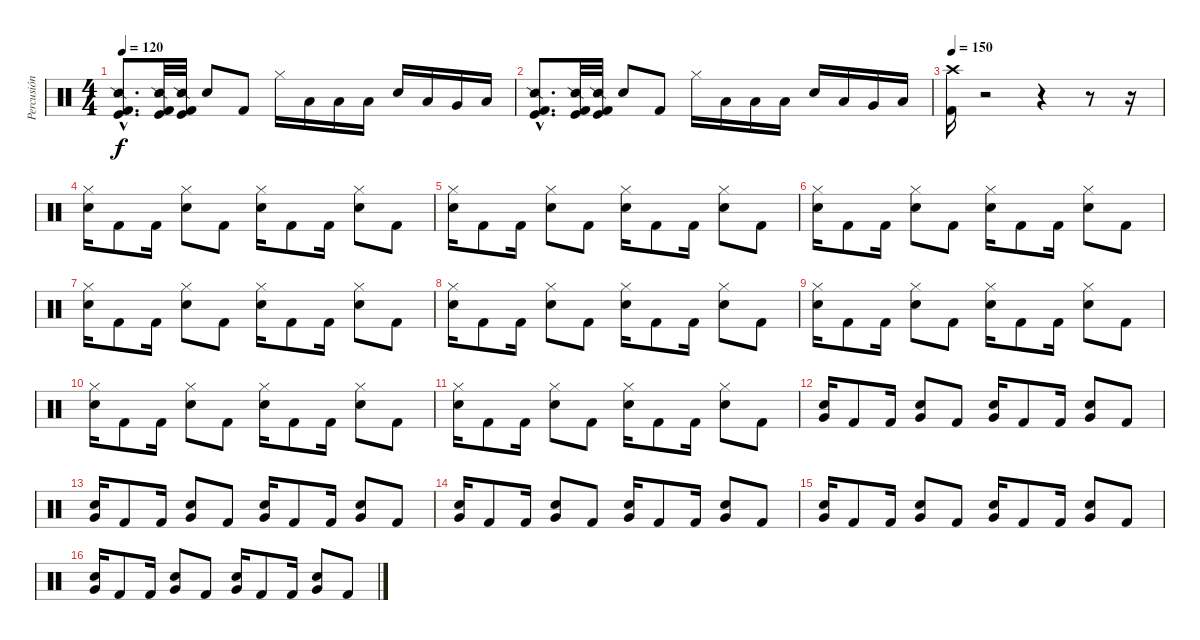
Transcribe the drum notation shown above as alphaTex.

\track ("Percusión" "Percusión") {instrument percussion}
\staff {score}
\articulation defaults
\ts (4 4)
\tempo 120
\clef neutral
\ks c
("Snare (side stick) 2"{hac} "Kick (hit)"{hac} "Kick (hit) 2"{hac}).8{d dy f} ("Snare (side stick) 2" "Kick (hit)" "Kick (hit) 2").32 ("Snare (side stick) 2" "Kick (hit)" "Kick (hit) 2").32 "Snare (hit) 2".8 "Kick (hit) 2".8 "Hi-Hat (closed)".16 "Low Tom (hit)".16 "Low Tom (hit)".16 "Low Tom (hit)".16 "Snare (hit) 2".16 "Low Tom (hit)".16 "Very Low Tom (hit)".16 "Low Floor Tom (hit)".16 |
("Snare (side stick) 2"{hac} "Kick (hit)"{hac} "Kick (hit) 2"{hac}).8{d} ("Snare (side stick) 2" "Kick (hit)" "Kick (hit) 2").32 ("Snare (side stick) 2" "Kick (hit)" "Kick (hit) 2").32 "Snare (hit) 2".8 "Kick (hit) 2".8 "Hi-Hat (closed)".16 "Low Tom (hit)".16 "Low Tom (hit)".16 "Low Tom (hit)".16 "Snare (hit) 2".16 "Low Tom (hit)".16 "Very Low Tom (hit)".16 "Low Floor Tom (hit)".16 |
\tempo 150
("Crash high (hit)" "Kick (hit) 2").16 r.2 r.4 r.8 r.16 |
("Hi-Hat (closed)" "Snare (hit) 2").16 "Kick (hit) 2".8 "Kick (hit) 2".16 ("Hi-Hat (closed)" "Snare (hit) 2").8 "Kick (hit) 2".8 ("Hi-Hat (closed)" "Snare (hit) 2").16 "Kick (hit) 2".8 "Kick (hit) 2".16 ("Hi-Hat (closed)" "Snare (hit) 2").8 "Kick (hit) 2".8 |
("Hi-Hat (closed)" "Snare (hit) 2").16 "Kick (hit) 2".8 "Kick (hit) 2".16 ("Hi-Hat (closed)" "Snare (hit) 2").8 "Kick (hit) 2".8 ("Hi-Hat (closed)" "Snare (hit) 2").16 "Kick (hit) 2".8 "Kick (hit) 2".16 ("Hi-Hat (closed)" "Snare (hit) 2").8 "Kick (hit) 2".8 |
("Hi-Hat (closed)" "Snare (hit) 2").16 "Kick (hit) 2".8 "Kick (hit) 2".16 ("Hi-Hat (closed)" "Snare (hit) 2").8 "Kick (hit) 2".8 ("Hi-Hat (closed)" "Snare (hit) 2").16 "Kick (hit) 2".8 "Kick (hit) 2".16 ("Hi-Hat (closed)" "Snare (hit) 2").8 "Kick (hit) 2".8 |
("Hi-Hat (closed)" "Snare (hit) 2").16 "Kick (hit) 2".8 "Kick (hit) 2".16 ("Hi-Hat (closed)" "Snare (hit) 2").8 "Kick (hit) 2".8 ("Hi-Hat (closed)" "Snare (hit) 2").16 "Kick (hit) 2".8 "Kick (hit) 2".16 ("Hi-Hat (closed)" "Snare (hit) 2").8 "Kick (hit) 2".8 |
("Hi-Hat (closed)" "Snare (hit) 2").16 "Kick (hit) 2".8 "Kick (hit) 2".16 ("Hi-Hat (closed)" "Snare (hit) 2").8 "Kick (hit) 2".8 ("Hi-Hat (closed)" "Snare (hit) 2").16 "Kick (hit) 2".8 "Kick (hit) 2".16 ("Hi-Hat (closed)" "Snare (hit) 2").8 "Kick (hit) 2".8 |
("Hi-Hat (closed)" "Snare (hit) 2").16 "Kick (hit) 2".8 "Kick (hit) 2".16 ("Hi-Hat (closed)" "Snare (hit) 2").8 "Kick (hit) 2".8 ("Hi-Hat (closed)" "Snare (hit) 2").16 "Kick (hit) 2".8 "Kick (hit) 2".16 ("Hi-Hat (closed)" "Snare (hit) 2").8 "Kick (hit) 2".8 |
("Hi-Hat (closed)" "Snare (hit) 2").16 "Kick (hit) 2".8 "Kick (hit) 2".16 ("Hi-Hat (closed)" "Snare (hit) 2").8 "Kick (hit) 2".8 ("Hi-Hat (closed)" "Snare (hit) 2").16 "Kick (hit) 2".8 "Kick (hit) 2".16 ("Hi-Hat (closed)" "Snare (hit) 2").8 "Kick (hit) 2".8 |
("Hi-Hat (closed)" "Snare (hit) 2").16 "Kick (hit) 2".8 "Kick (hit) 2".16 ("Hi-Hat (closed)" "Snare (hit) 2").8 "Kick (hit) 2".8 ("Hi-Hat (closed)" "Snare (hit) 2").16 "Kick (hit) 2".8 "Kick (hit) 2".16 ("Hi-Hat (closed)" "Snare (hit) 2").8 "Kick (hit) 2".8 |
("Very Low Tom (hit)" "Snare (hit) 2").16 "Kick (hit) 2".8 "Kick (hit) 2".16 ("Very Low Tom (hit)" "Snare (hit) 2").8 "Kick (hit) 2".8 ("Very Low Tom (hit)" "Snare (hit) 2").16 "Kick (hit) 2".8 "Kick (hit) 2".16 ("Very Low Tom (hit)" "Snare (hit) 2").8 "Kick (hit) 2".8 |
("Very Low Tom (hit)" "Snare (hit) 2").16 "Kick (hit) 2".8 "Kick (hit) 2".16 ("Very Low Tom (hit)" "Snare (hit) 2").8 "Kick (hit) 2".8 ("Very Low Tom (hit)" "Snare (hit) 2").16 "Kick (hit) 2".8 "Kick (hit) 2".16 ("Very Low Tom (hit)" "Snare (hit) 2").8 "Kick (hit) 2".8 |
("Very Low Tom (hit)" "Snare (hit) 2").16 "Kick (hit) 2".8 "Kick (hit) 2".16 ("Very Low Tom (hit)" "Snare (hit) 2").8 "Kick (hit) 2".8 ("Very Low Tom (hit)" "Snare (hit) 2").16 "Kick (hit) 2".8 "Kick (hit) 2".16 ("Very Low Tom (hit)" "Snare (hit) 2").8 "Kick (hit) 2".8 |
("Very Low Tom (hit)" "Snare (hit) 2").16 "Kick (hit) 2".8 "Kick (hit) 2".16 ("Very Low Tom (hit)" "Snare (hit) 2").8 "Kick (hit) 2".8 ("Very Low Tom (hit)" "Snare (hit) 2").16 "Kick (hit) 2".8 "Kick (hit) 2".16 ("Very Low Tom (hit)" "Snare (hit) 2").8 "Kick (hit) 2".8 |
("Very Low Tom (hit)" "Snare (hit) 2").16 "Kick (hit) 2".8 "Kick (hit) 2".16 ("Very Low Tom (hit)" "Snare (hit) 2").8 "Kick (hit) 2".8 ("Very Low Tom (hit)" "Snare (hit) 2").16 "Kick (hit) 2".8 "Kick (hit) 2".16 ("Very Low Tom (hit)" "Snare (hit) 2").8 "Kick (hit) 2".8
